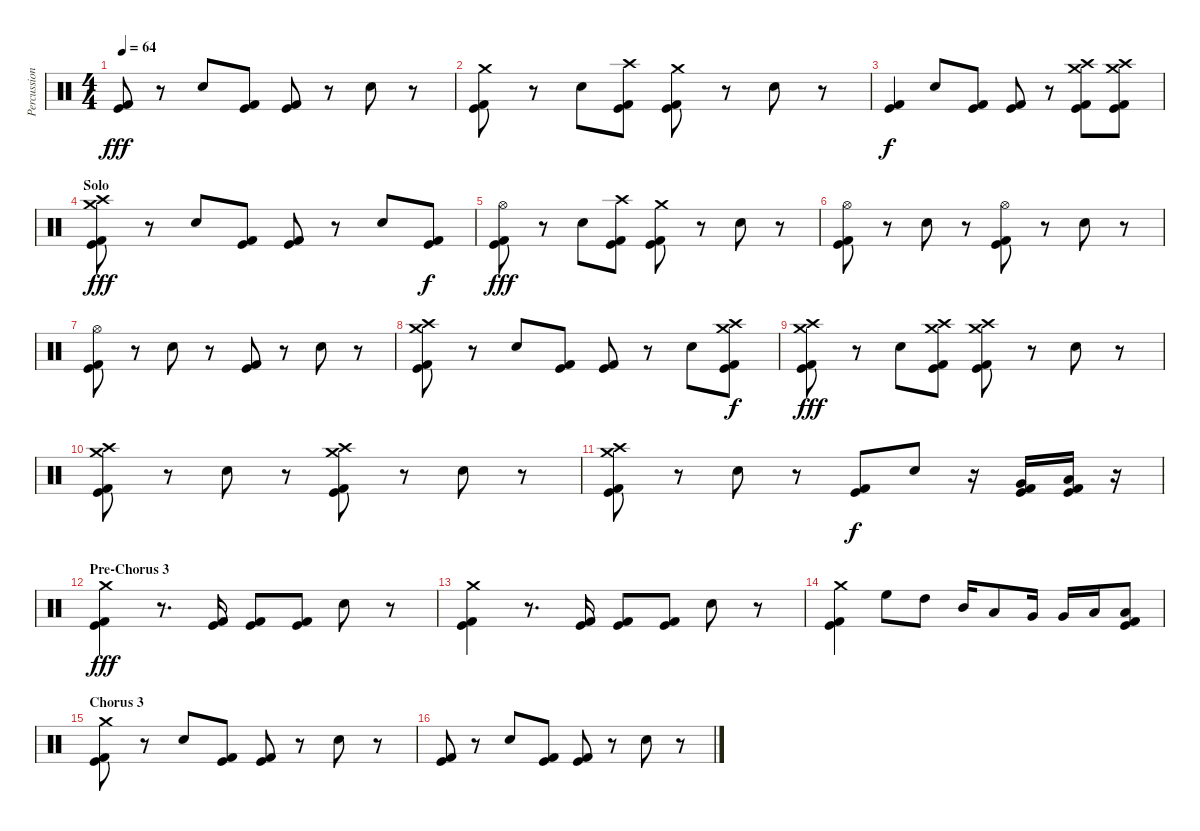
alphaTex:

\track ("Percussion" "Percussion") {instrument percussion}
\staff {score}
\articulation defaults
\ts (4 4)
\tempo 64
\clef neutral
\ks c
("Kick (hit) 2" "Kick (hit)").8{dy fff} r.8 "Snare (hit) 2".8 ("Kick (hit) 2" "Kick (hit)").8 ("Kick (hit) 2" "Kick (hit)").8 r.8 "Snare (hit) 2".8 r.8 |
("Crash medium (hit)" "Kick (hit) 2" "Kick (hit)").8 r.8 "Snare (hit) 2".8 ("Crash high (hit)" "Kick (hit) 2" "Kick (hit)").8 ("Crash medium (hit)" "Kick (hit) 2" "Kick (hit)").8 r.8 "Snare (hit) 2".8 r.8 |
("Kick (hit) 2" "Kick (hit)").4{dy f} "Snare (hit) 2".8 ("Kick (hit) 2" "Kick (hit)").8 ("Kick (hit) 2" "Kick (hit)").8 r.8 ("Crash medium (hit)" "Crash high (hit)" "Kick (hit) 2" "Kick (hit)").8 ("Crash medium (hit)" "Crash high (hit)" "Kick (hit) 2" "Kick (hit)").8 |
\section ("" "Solo")
("Crash medium (hit)" "Crash high (hit)" "Kick (hit) 2" "Kick (hit)").8{dy fff} r.8 "Snare (hit) 2".8 ("Kick (hit) 2" "Kick (hit)").8 ("Kick (hit) 2" "Kick (hit)").8 r.8 "Snare (hit) 2".8 ("Kick (hit) 2" "Kick (hit)").8{dy f} |
("Hi-Hat (open)" "Kick (hit) 2" "Kick (hit)").8{dy fff} r.8 "Snare (hit) 2".8 ("Crash high (hit)" "Kick (hit) 2" "Kick (hit)").8 ("Crash medium (hit)" "Kick (hit) 2" "Kick (hit)").8 r.8 "Snare (hit) 2".8 r.8 |
("Hi-Hat (open)" "Kick (hit) 2" "Kick (hit)").8 r.8 "Snare (hit) 2".8 r.8 ("Hi-Hat (open)" "Kick (hit) 2" "Kick (hit)").8 r.8 "Snare (hit) 2".8 r.8 |
("Hi-Hat (open)" "Kick (hit) 2" "Kick (hit)").8 r.8 "Snare (hit) 2".8 r.8 ("Kick (hit) 2" "Kick (hit)").8 r.8 "Snare (hit) 2".8 r.8 |
("Crash medium (hit)" "Crash high (hit)" "Kick (hit) 2" "Kick (hit)").8 r.8 "Snare (hit) 2".8 ("Kick (hit) 2" "Kick (hit)").8 ("Kick (hit) 2" "Kick (hit)").8 r.8 "Snare (hit) 2".8 ("Crash medium (hit)" "Crash high (hit)" "Kick (hit) 2" "Kick (hit)").8{dy f} |
("Crash medium (hit)" "Crash high (hit)" "Kick (hit) 2" "Kick (hit)").8{dy fff} r.8 "Snare (hit) 2".8 ("Crash medium (hit)" "Crash high (hit)" "Kick (hit) 2" "Kick (hit)").8 ("Crash medium (hit)" "Crash high (hit)" "Kick (hit) 2" "Kick (hit)").8 r.8 "Snare (hit) 2".8 r.8 |
("Crash medium (hit)" "Crash high (hit)" "Kick (hit) 2" "Kick (hit)").8 r.8 "Snare (hit) 2".8 r.8 ("Crash medium (hit)" "Crash high (hit)" "Kick (hit) 2" "Kick (hit)").8 r.8 "Snare (hit) 2".8 r.8 |
("Crash medium (hit)" "Crash high (hit)" "Kick (hit) 2" "Kick (hit)").8 r.8 "Snare (hit) 2".8 r.8 ("Kick (hit) 2" "Kick (hit)").8{dy f} "Snare (hit) 2".8 r.16 ("Very Low Tom (hit)" "Kick (hit) 2" "Kick (hit)").16 ("Low Floor Tom (hit)" "Kick (hit) 2" "Kick (hit)").16 r.16 |
\section ("" "Pre-Chorus 3")
("Crash medium (hit)" "Kick (hit) 2" "Kick (hit)").4{dy fff} r.8{d} ("Kick (hit) 2" "Kick (hit)").16 ("Kick (hit) 2" "Kick (hit)").8 ("Kick (hit) 2" "Kick (hit)").8 "Snare (hit) 2".8 r.8 |
("Crash medium (hit)" "Kick (hit) 2" "Kick (hit)").4 r.8{d} ("Kick (hit) 2" "Kick (hit)").16 ("Kick (hit) 2" "Kick (hit)").8 ("Kick (hit) 2" "Kick (hit)").8 "Snare (hit) 2".8 r.8 |
("Crash medium (hit)" "Kick (hit) 2" "Kick (hit)").4 "High Floor Tom (hit)".8 "High Tom (hit)".8 "Mid Tom (hit)".16 "Low Tom (hit)".8 "Very Low Tom (hit)".16 "Very Low Tom (hit)".16 "Low Floor Tom (hit)".16 ("Low Floor Tom (hit)" "Kick (hit) 2" "Kick (hit)").8 |
\section ("" "Chorus 3")
("Crash medium (hit)" "Kick (hit) 2" "Kick (hit)").8 r.8 "Snare (hit) 2".8 ("Kick (hit) 2" "Kick (hit)").8 ("Kick (hit) 2" "Kick (hit)").8 r.8 "Snare (hit) 2".8 r.8 |
("Kick (hit) 2" "Kick (hit)").8 r.8 "Snare (hit) 2".8 ("Kick (hit) 2" "Kick (hit)").8 ("Kick (hit) 2" "Kick (hit)").8 r.8 "Snare (hit) 2".8 r.8
